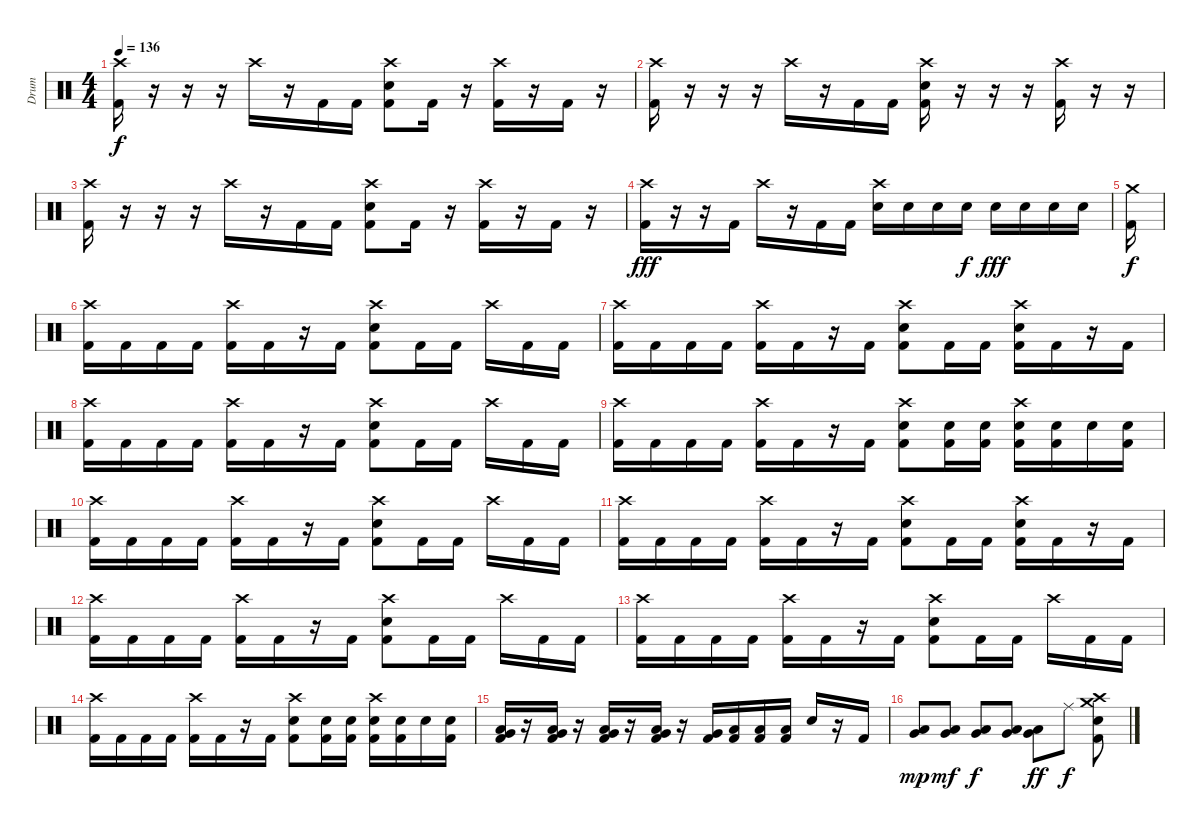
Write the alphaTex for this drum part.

\track ("Drum" "Drum") {instrument percussion}
\staff {score}
\articulation defaults
\ts (4 4)
\tempo 136
\clef neutral
\ks c
("Crash high (hit)" "Kick (hit) 2").16{dy f} r.16 r.16 r.16 "Crash high (hit)".16 r.16 "Kick (hit) 2".16 "Kick (hit) 2".16 ("Crash high (hit)" "Electric Snare (hit)" "Kick (hit) 2").8 "Kick (hit) 2".16 r.16 ("Crash high (hit)" "Kick (hit) 2").16 r.16 "Kick (hit) 2".16 r.16 |
("Crash high (hit)" "Kick (hit) 2").16 r.16 r.16 r.16 "Crash high (hit)".16 r.16 "Kick (hit) 2".16 "Kick (hit) 2".16 ("Crash high (hit)" "Electric Snare (hit)" "Kick (hit) 2").16 r.16 r.16 r.16 ("Crash high (hit)" "Kick (hit) 2").16 r.16 r.16 |
("Crash high (hit)" "Kick (hit) 2").16 r.16 r.16 r.16 "Crash high (hit)".16 r.16 "Kick (hit) 2".16 "Kick (hit) 2".16 ("Crash high (hit)" "Electric Snare (hit)" "Kick (hit) 2").8 "Kick (hit) 2".16 r.16 ("Crash high (hit)" "Kick (hit) 2").16 r.16 "Kick (hit) 2".16 r.16 |
("Crash high (hit)" "Kick (hit) 2").16{dy fff} r.16 r.16 "Kick (hit) 2".16 "Crash high (hit)".16 r.16 "Kick (hit) 2".16 "Kick (hit) 2".16 ("Crash high (hit)" "Electric Snare (hit)").16 "Electric Snare (hit)".16 "Electric Snare (hit)".16 "Electric Snare (hit)".16{dy f} "Electric Snare (hit)".16{dy fff} "Electric Snare (hit)".16 "Electric Snare (hit)".16 "Electric Snare (hit)".16 |
("Crash medium (hit)" "Kick (hit) 2").16{dy f} |
("Crash high (hit)" "Kick (hit) 2").16 "Kick (hit) 2".16 "Kick (hit) 2".16 "Kick (hit) 2".16 ("Crash high (hit)" "Kick (hit) 2").16 "Kick (hit) 2".16 r.16 "Kick (hit) 2".16 ("Crash high (hit)" "Electric Snare (hit)" "Kick (hit) 2").8 "Kick (hit) 2".16 "Kick (hit) 2".16 "Crash high (hit)".16 "Kick (hit) 2".16 "Kick (hit) 2".16 |
("Crash high (hit)" "Kick (hit) 2").16 "Kick (hit) 2".16 "Kick (hit) 2".16 "Kick (hit) 2".16 ("Crash high (hit)" "Kick (hit) 2").16 "Kick (hit) 2".16 r.16 "Kick (hit) 2".16 ("Crash high (hit)" "Electric Snare (hit)" "Kick (hit) 2").8 "Kick (hit) 2".16 "Kick (hit) 2".16 ("Crash high (hit)" "Electric Snare (hit)" "Kick (hit) 2").16 "Kick (hit) 2".16 r.16 "Kick (hit) 2".16 |
("Crash high (hit)" "Kick (hit) 2").16 "Kick (hit) 2".16 "Kick (hit) 2".16 "Kick (hit) 2".16 ("Crash high (hit)" "Kick (hit) 2").16 "Kick (hit) 2".16 r.16 "Kick (hit) 2".16 ("Crash high (hit)" "Electric Snare (hit)" "Kick (hit) 2").8 "Kick (hit) 2".16 "Kick (hit) 2".16 "Crash high (hit)".16 "Kick (hit) 2".16 "Kick (hit) 2".16 |
("Crash high (hit)" "Kick (hit) 2").16 "Kick (hit) 2".16 "Kick (hit) 2".16 "Kick (hit) 2".16 ("Crash high (hit)" "Kick (hit) 2").16 "Kick (hit) 2".16 r.16 "Kick (hit) 2".16 ("Crash high (hit)" "Electric Snare (hit)" "Kick (hit) 2").8 ("Electric Snare (hit)" "Kick (hit) 2").16 ("Electric Snare (hit)" "Kick (hit) 2").16 ("Crash high (hit)" "Electric Snare (hit)" "Kick (hit) 2").16 ("Electric Snare (hit)" "Kick (hit) 2").16 "Electric Snare (hit)".16 ("Electric Snare (hit)" "Kick (hit) 2").16 |
("Crash high (hit)" "Kick (hit) 2").16 "Kick (hit) 2".16 "Kick (hit) 2".16 "Kick (hit) 2".16 ("Crash high (hit)" "Kick (hit) 2").16 "Kick (hit) 2".16 r.16 "Kick (hit) 2".16 ("Crash high (hit)" "Electric Snare (hit)" "Kick (hit) 2").8 "Kick (hit) 2".16 "Kick (hit) 2".16 "Crash high (hit)".16 "Kick (hit) 2".16 "Kick (hit) 2".16 |
("Crash high (hit)" "Kick (hit) 2").16 "Kick (hit) 2".16 "Kick (hit) 2".16 "Kick (hit) 2".16 ("Crash high (hit)" "Kick (hit) 2").16 "Kick (hit) 2".16 r.16 "Kick (hit) 2".16 ("Crash high (hit)" "Electric Snare (hit)" "Kick (hit) 2").8 "Kick (hit) 2".16 "Kick (hit) 2".16 ("Crash high (hit)" "Electric Snare (hit)" "Kick (hit) 2").16 "Kick (hit) 2".16 r.16 "Kick (hit) 2".16 |
("Crash high (hit)" "Kick (hit) 2").16 "Kick (hit) 2".16 "Kick (hit) 2".16 "Kick (hit) 2".16 ("Crash high (hit)" "Kick (hit) 2").16 "Kick (hit) 2".16 r.16 "Kick (hit) 2".16 ("Crash high (hit)" "Electric Snare (hit)" "Kick (hit) 2").8 "Kick (hit) 2".16 "Kick (hit) 2".16 "Crash high (hit)".16 "Kick (hit) 2".16 "Kick (hit) 2".16 |
("Crash high (hit)" "Kick (hit) 2").16 "Kick (hit) 2".16 "Kick (hit) 2".16 "Kick (hit) 2".16 ("Crash high (hit)" "Kick (hit) 2").16 "Kick (hit) 2".16 r.16 "Kick (hit) 2".16 ("Crash high (hit)" "Electric Snare (hit)" "Kick (hit) 2").8 "Kick (hit) 2".16 "Kick (hit) 2".16 "Crash high (hit)".16 "Kick (hit) 2".16 "Kick (hit) 2".16 |
("Crash high (hit)" "Kick (hit) 2").16 "Kick (hit) 2".16 "Kick (hit) 2".16 "Kick (hit) 2".16 ("Crash high (hit)" "Kick (hit) 2").16 "Kick (hit) 2".16 r.16 "Kick (hit) 2".16 ("Crash high (hit)" "Electric Snare (hit)" "Kick (hit) 2").8 ("Electric Snare (hit)" "Kick (hit) 2").16 ("Electric Snare (hit)" "Kick (hit) 2").16 ("Crash high (hit)" "Electric Snare (hit)" "Kick (hit) 2").16 ("Electric Snare (hit)" "Kick (hit) 2").16 "Electric Snare (hit)".16 ("Electric Snare (hit)" "Kick (hit) 2").16 |
("Very Low Tom (hit)" "Low Floor Tom (hit)" "Kick (hit) 2").16 r.16 ("Very Low Tom (hit)" "Low Floor Tom (hit)" "Kick (hit) 2").16 r.16 ("Very Low Tom (hit)" "Low Floor Tom (hit)" "Kick (hit) 2").16 r.16 ("Very Low Tom (hit)" "Low Floor Tom (hit)" "Kick (hit) 2").16 r.16 ("Very Low Tom (hit)" "Kick (hit) 2").16 ("Low Tom (hit)" "Kick (hit) 2").16 ("Low Floor Tom (hit)" "Kick (hit) 2").16 ("Low Tom (hit)" "Kick (hit) 2").16 "Electric Snare (hit)".16 r.16 "Kick (hit) 2".16 |
("Very Low Tom (hit)" "Low Floor Tom (hit)").8{dy mp} ("Very Low Tom (hit)" "Low Floor Tom (hit)").8{dy mf} ("Very Low Tom (hit)" "Low Floor Tom (hit)").8{dy f} ("Very Low Tom (hit)" "Low Floor Tom (hit)").8 ("Very Low Tom (hit)" "Low Floor Tom (hit)").8{dy ff} "Ride (middle)".8{dy f} ("Crash high (hit)" "Crash medium (hit)" "Electric Snare (hit)" "Kick (hit) 2").8
